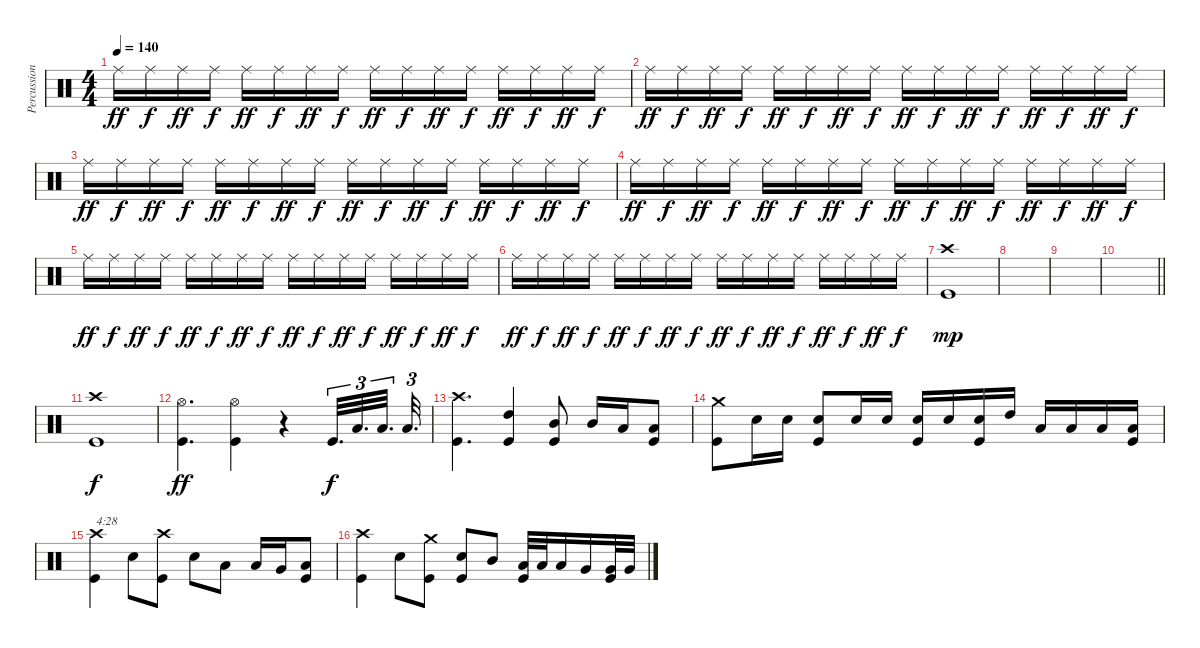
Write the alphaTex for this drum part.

\track ("Percussion" "Percussion") {instrument percussion}
\staff {score}
\articulation defaults
\ts (4 4)
\tempo 140
\clef neutral
\ks c "Ride (middle)".16{dy ff} "Ride (middle)".16{dy f} "Ride (middle)".16{dy ff} "Ride (middle)".16{dy f} "Ride (middle)".16{dy ff} "Ride (middle)".16{dy f} "Ride (middle)".16{dy ff} "Ride (middle)".16{dy f} "Ride (middle)".16{dy ff} "Ride (middle)".16{dy f} "Ride (middle)".16{dy ff} "Ride (middle)".16{dy f} "Ride (middle)".16{dy ff} "Ride (middle)".16{dy f} "Ride (middle)".16{dy ff} "Ride (middle)".16{dy f}
|
"Ride (middle)".16{dy ff} "Ride (middle)".16{dy f} "Ride (middle)".16{dy ff} "Ride (middle)".16{dy f} "Ride (middle)".16{dy ff} "Ride (middle)".16{dy f} "Ride (middle)".16{dy ff} "Ride (middle)".16{dy f} "Ride (middle)".16{dy ff} "Ride (middle)".16{dy f} "Ride (middle)".16{dy ff} "Ride (middle)".16{dy f} "Ride (middle)".16{dy ff} "Ride (middle)".16{dy f} "Ride (middle)".16{dy ff} "Ride (middle)".16{dy f} |
"Ride (middle)".16{dy ff} "Ride (middle)".16{dy f} "Ride (middle)".16{dy ff} "Ride (middle)".16{dy f} "Ride (middle)".16{dy ff} "Ride (middle)".16{dy f} "Ride (middle)".16{dy ff} "Ride (middle)".16{dy f} "Ride (middle)".16{dy ff} "Ride (middle)".16{dy f} "Ride (middle)".16{dy ff} "Ride (middle)".16{dy f} "Ride (middle)".16{dy ff} "Ride (middle)".16{dy f} "Ride (middle)".16{dy ff} "Ride (middle)".16{dy f} |
"Ride (middle)".16{dy ff} "Ride (middle)".16{dy f} "Ride (middle)".16{dy ff} "Ride (middle)".16{dy f} "Ride (middle)".16{dy ff} "Ride (middle)".16{dy f} "Ride (middle)".16{dy ff} "Ride (middle)".16{dy f} "Ride (middle)".16{dy ff} "Ride (middle)".16{dy f} "Ride (middle)".16{dy ff} "Ride (middle)".16{dy f} "Ride (middle)".16{dy ff} "Ride (middle)".16{dy f} "Ride (middle)".16{dy ff} "Ride (middle)".16{dy f} |
"Ride (middle)".16{dy ff} "Ride (middle)".16{dy f} "Ride (middle)".16{dy ff} "Ride (middle)".16{dy f} "Ride (middle)".16{dy ff} "Ride (middle)".16{dy f} "Ride (middle)".16{dy ff} "Ride (middle)".16{dy f} "Ride (middle)".16{dy ff} "Ride (middle)".16{dy f} "Ride (middle)".16{dy ff} "Ride (middle)".16{dy f} "Ride (middle)".16{dy ff} "Ride (middle)".16{dy f} "Ride (middle)".16{dy ff} "Ride (middle)".16{dy f} |
"Ride (middle)".16{dy ff} "Ride (middle)".16{dy f} "Ride (middle)".16{dy ff} "Ride (middle)".16{dy f} "Ride (middle)".16{dy ff} "Ride (middle)".16{dy f} "Ride (middle)".16{dy ff} "Ride (middle)".16{dy f} "Ride (middle)".16{dy ff} "Ride (middle)".16{dy f} "Ride (middle)".16{dy ff} "Ride (middle)".16{dy f} "Ride (middle)".16{dy ff} "Ride (middle)".16{dy f} "Ride (middle)".16{dy ff} "Ride (middle)".16{dy f} |
("Crash high (hit)" "Kick (hit)").1{dy mp} |
|
|
\barLineRight lightlight
|
("Crash high (hit)" "Kick (hit)").1{dy f} |
("Hi-Hat (open)" "Kick (hit)").4{d dy ff} ("Hi-Hat (open)" "Kick (hit)").4 r.4 "Kick (hit)".32{d tu (3 2) dy f} "Low Tom (hit)".32{d tu (3 2)} "Low Tom (hit)".32{d tu (3 2)} "Low Floor Tom (hit)".32{d tu (3 2)} |
("Crash high (hit)" "Kick (hit)").4{d} ("High Tom (hit)" "Kick (hit)").4 ("Mid Tom (hit)" "Kick (hit)").8 "Mid Tom (hit)".16 "Low Tom (hit)".16 ("Low Tom (hit)" "Kick (hit)").8 |
("Crash medium (hit)" "Kick (hit)").8 "Electric Snare (hit)".16 "Electric Snare (hit)".16 ("Electric Snare (hit)" "Kick (hit)").8 "Electric Snare (hit)".16 "Electric Snare (hit)".16 ("Electric Snare (hit)" "Kick (hit)").16 "Electric Snare (hit)".16 ("Electric Snare (hit)" "Kick (hit)").16 "High Tom (hit)".16 "Low Tom (hit)".16 "Low Tom (hit)".16 "Low Floor Tom (hit)".16 ("Low Floor Tom (hit)" "Kick (hit)").16 |
("Crash high (hit)" "Kick (hit)").4{txt "4:28"} "Electric Snare (hit)".8 ("Crash high (hit)" "Kick (hit)").8 "Electric Snare (hit)".8 "Low Tom (hit)".8 "Low Tom (hit)".16 "Very Low Tom (hit)".16 ("Low Floor Tom (hit)" "Kick (hit)").8 |
("Crash high (hit)" "Kick (hit)").4 "Electric Snare (hit)".8 ("Crash medium (hit)" "Kick (hit)").8 ("Electric Snare (hit)" "Kick (hit)").8 "Mid Tom (hit)".8 ("Low Tom (hit)" "Kick (hit)").32 "Low Tom (hit)".32 "Low Tom (hit)".16 "Very Low Tom (hit)".16 ("Very Low Tom (hit)" "Kick (hit)").32 "Very Low Tom (hit)".32
